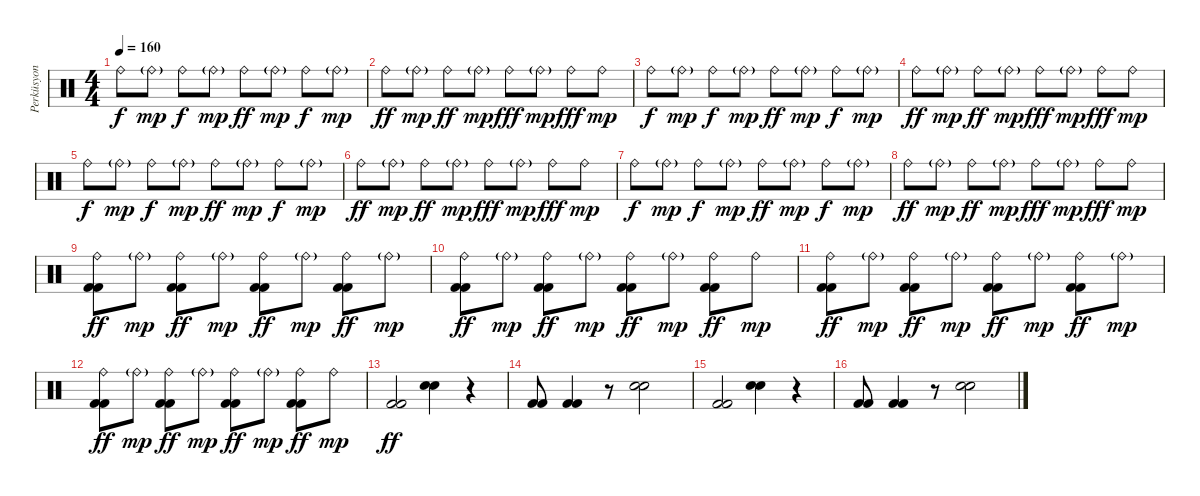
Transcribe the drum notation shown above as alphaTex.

\track ("Perküsyon" "Perküsyon") {instrument percussion}
\staff {score}
\articulation defaults
\ts (4 4)
\tempo 160
\clef neutral
\ks c "Ride (bell)".8{dy f} "Ride (bell)"{g}.8{dy mp} "Ride (bell)".8{dy f} "Ride (bell)"{g}.8{dy mp} "Ride (bell)".8{dy ff} "Ride (bell)"{g}.8{dy mp} "Ride (bell)".8{dy f} "Ride (bell)"{g}.8{dy mp}
|
"Ride (bell)".8{dy ff} "Ride (bell)"{g}.8{dy mp} "Ride (bell)".8{dy ff} "Ride (bell)"{g}.8{dy mp} "Ride (bell)".8{dy fff} "Ride (bell)"{g}.8{dy mp} "Ride (bell)".8{dy fff} "Ride (bell)".8{dy mp} |
"Ride (bell)".8{dy f} "Ride (bell)"{g}.8{dy mp} "Ride (bell)".8{dy f} "Ride (bell)"{g}.8{dy mp} "Ride (bell)".8{dy ff} "Ride (bell)"{g}.8{dy mp} "Ride (bell)".8{dy f} "Ride (bell)"{g}.8{dy mp} |
"Ride (bell)".8{dy ff} "Ride (bell)"{g}.8{dy mp} "Ride (bell)".8{dy ff} "Ride (bell)"{g}.8{dy mp} "Ride (bell)".8{dy fff} "Ride (bell)"{g}.8{dy mp} "Ride (bell)".8{dy fff} "Ride (bell)".8{dy mp} |
"Ride (bell)".8{dy f} "Ride (bell)"{g}.8{dy mp} "Ride (bell)".8{dy f} "Ride (bell)"{g}.8{dy mp} "Ride (bell)".8{dy ff} "Ride (bell)"{g}.8{dy mp} "Ride (bell)".8{dy f} "Ride (bell)"{g}.8{dy mp} |
"Ride (bell)".8{dy ff} "Ride (bell)"{g}.8{dy mp} "Ride (bell)".8{dy ff} "Ride (bell)"{g}.8{dy mp} "Ride (bell)".8{dy fff} "Ride (bell)"{g}.8{dy mp} "Ride (bell)".8{dy fff} "Ride (bell)".8{dy mp} |
"Ride (bell)".8{dy f} "Ride (bell)"{g}.8{dy mp} "Ride (bell)".8{dy f} "Ride (bell)"{g}.8{dy mp} "Ride (bell)".8{dy ff} "Ride (bell)"{g}.8{dy mp} "Ride (bell)".8{dy f} "Ride (bell)"{g}.8{dy mp} |
"Ride (bell)".8{dy ff} "Ride (bell)"{g}.8{dy mp} "Ride (bell)".8{dy ff} "Ride (bell)"{g}.8{dy mp} "Ride (bell)".8{dy fff} "Ride (bell)"{g}.8{dy mp} "Ride (bell)".8{dy fff} "Ride (bell)".8{dy mp} |
("Ride (bell)" "Kick (hit) 2" "Kick (hit) 2").8{dy ff} "Ride (bell)"{g}.8{dy mp} ("Ride (bell)" "Kick (hit) 2" "Kick (hit) 2").8{dy ff} "Ride (bell)"{g}.8{dy mp} ("Ride (bell)" "Kick (hit) 2" "Kick (hit) 2").8{dy ff} "Ride (bell)"{g}.8{dy mp} ("Ride (bell)" "Kick (hit) 2" "Kick (hit) 2").8{dy ff} "Ride (bell)"{g}.8{dy mp} |
("Ride (bell)" "Kick (hit) 2" "Kick (hit) 2").8{dy ff} "Ride (bell)"{g}.8{dy mp} ("Ride (bell)" "Kick (hit) 2" "Kick (hit) 2").8{dy ff} "Ride (bell)"{g}.8{dy mp} ("Ride (bell)" "Kick (hit) 2" "Kick (hit) 2").8{dy ff} "Ride (bell)"{g}.8{dy mp} ("Ride (bell)" "Kick (hit) 2" "Kick (hit) 2").8{dy ff} "Ride (bell)".8{dy mp} |
("Ride (bell)" "Kick (hit) 2" "Kick (hit) 2").8{dy ff} "Ride (bell)"{g}.8{dy mp} ("Ride (bell)" "Kick (hit) 2" "Kick (hit) 2").8{dy ff} "Ride (bell)"{g}.8{dy mp} ("Ride (bell)" "Kick (hit) 2" "Kick (hit) 2").8{dy ff} "Ride (bell)"{g}.8{dy mp} ("Ride (bell)" "Kick (hit) 2" "Kick (hit) 2").8{dy ff} "Ride (bell)"{g}.8{dy mp} |
("Ride (bell)" "Kick (hit) 2" "Kick (hit) 2").8{dy ff} "Ride (bell)"{g}.8{dy mp} ("Ride (bell)" "Kick (hit) 2" "Kick (hit) 2").8{dy ff} "Ride (bell)"{g}.8{dy mp} ("Ride (bell)" "Kick (hit) 2" "Kick (hit) 2").8{dy ff} "Ride (bell)"{g}.8{dy mp} ("Ride (bell)" "Kick (hit) 2" "Kick (hit) 2").8{dy ff} "Ride (bell)".8{dy mp} |
("Kick (hit) 2" "Kick (hit) 2").2{dy ff} ("Electric Snare (hit)" "Electric Snare (hit)").4 r.4 |
("Kick (hit) 2" "Kick (hit) 2").8 ("Kick (hit) 2" "Kick (hit) 2").4 r.8 ("Electric Snare (hit)" "Electric Snare (hit)").2 |
("Kick (hit) 2" "Kick (hit) 2").2 ("Electric Snare (hit)" "Electric Snare (hit)").4 r.4 |
("Kick (hit) 2" "Kick (hit) 2").8 ("Kick (hit) 2" "Kick (hit) 2").4 r.8 ("Electric Snare (hit)" "Electric Snare (hit)").2
